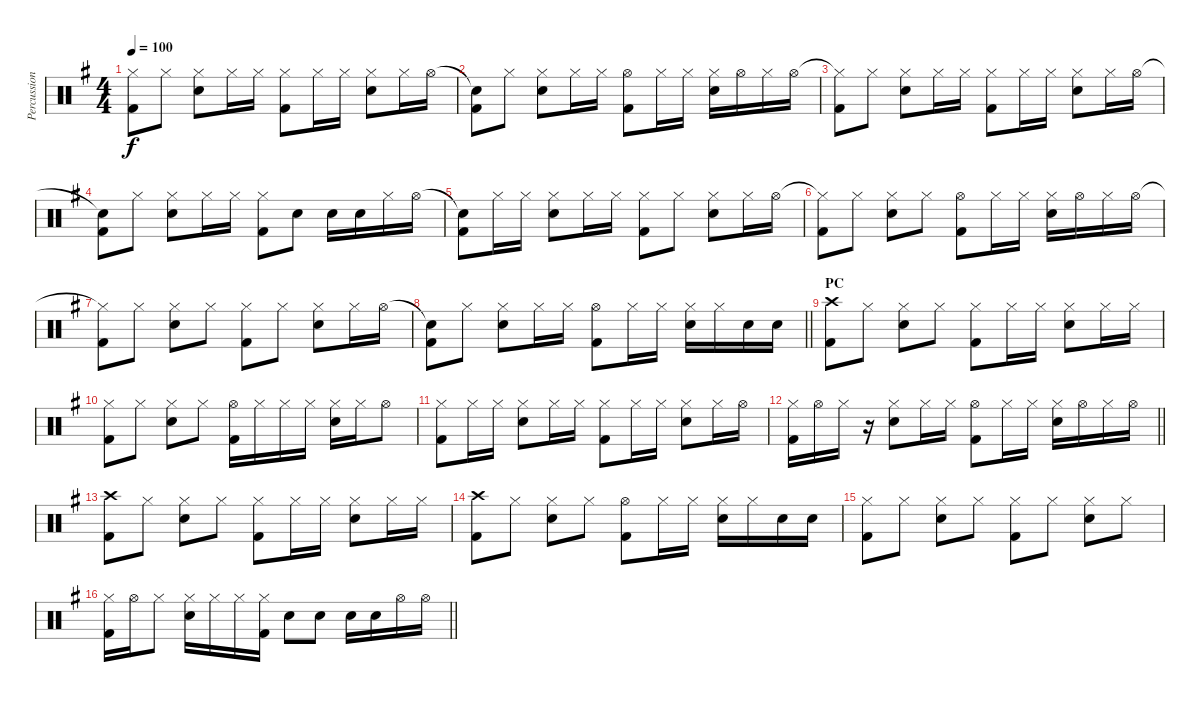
\track ("Percussion" "Percussion") {instrument percussion}
\staff {score}
\articulation defaults
\ts (4 4)
\tempo 100
\clef neutral
\ks g
("Hi-Hat (closed)"{t} "Kick (hit) 2").8{dy f} "Hi-Hat (closed)".8 ("Hi-Hat (closed)" "Electric Snare (hit)").8 "Hi-Hat (closed)".16 "Hi-Hat (closed)".16 ("Hi-Hat (closed)" "Kick (hit) 2").8 "Hi-Hat (closed)".16 "Hi-Hat (closed)".16 ("Hi-Hat (closed)" "Electric Snare (hit)").8 "Hi-Hat (closed)".16 "Hi-Hat (open)".16 |
("Snare (hit)"{t} "Kick (hit) 2").8 "Hi-Hat (closed)".8 ("Hi-Hat (closed)" "Electric Snare (hit)").8 "Hi-Hat (closed)".16 "Hi-Hat (closed)".16 ("Hi-Hat (open)" "Kick (hit) 2").8 "Hi-Hat (closed)".16 "Hi-Hat (closed)".16 ("Hi-Hat (closed)" "Electric Snare (hit)").16 "Hi-Hat (open)".16 "Hi-Hat (closed)".16 "Hi-Hat (open)".16 |
("Hi-Hat (closed)"{t} "Kick (hit) 2").8 "Hi-Hat (closed)".8 ("Hi-Hat (closed)" "Electric Snare (hit)").8 "Hi-Hat (closed)".16 "Hi-Hat (closed)".16 ("Hi-Hat (closed)" "Kick (hit) 2").8 "Hi-Hat (closed)".16 "Hi-Hat (closed)".16 ("Hi-Hat (closed)" "Electric Snare (hit)").8 "Hi-Hat (closed)".16 "Hi-Hat (open)".16 |
("Snare (hit)"{t} "Kick (hit) 2").8 "Hi-Hat (closed)".8 ("Hi-Hat (closed)" "Electric Snare (hit)").8 "Hi-Hat (closed)".16 "Hi-Hat (closed)".16 ("Hi-Hat (closed)" "Kick (hit) 2").8 "Electric Snare (hit)".8 "Electric Snare (hit)".16 "Electric Snare (hit)".16 "Hi-Hat (closed)".16 "Hi-Hat (open)".16 |
("Snare (hit)"{t} "Kick (hit) 2").8 "Hi-Hat (closed)".16 "Hi-Hat (closed)".16 ("Hi-Hat (closed)" "Electric Snare (hit)").8 "Hi-Hat (closed)".16 "Hi-Hat (closed)".16 ("Hi-Hat (closed)" "Kick (hit) 2").8 "Hi-Hat (closed)".8 ("Hi-Hat (closed)" "Electric Snare (hit)").8 "Hi-Hat (closed)".16 "Hi-Hat (open)".16 |
("Hi-Hat (closed)"{t} "Kick (hit) 2").8 "Hi-Hat (closed)".8 ("Hi-Hat (closed)" "Electric Snare (hit)").8 "Hi-Hat (closed)".8 ("Hi-Hat (open)" "Kick (hit) 2").8 "Hi-Hat (closed)".16 "Hi-Hat (closed)".16 ("Hi-Hat (closed)" "Electric Snare (hit)").16 "Hi-Hat (open)".16 "Hi-Hat (closed)".16 "Hi-Hat (open)".16 |
("Hi-Hat (closed)"{t} "Kick (hit) 2").8 "Hi-Hat (closed)".8 ("Hi-Hat (closed)" "Electric Snare (hit)").8 "Hi-Hat (closed)".8 ("Hi-Hat (closed)" "Kick (hit) 2").8 "Hi-Hat (closed)".8 ("Hi-Hat (closed)" "Electric Snare (hit)").8 "Hi-Hat (closed)".16 "Hi-Hat (open)".16 |
\barLineRight lightlight
("Snare (hit)"{t} "Kick (hit) 2").8 "Hi-Hat (closed)".8 ("Hi-Hat (closed)" "Electric Snare (hit)").8 "Hi-Hat (closed)".16 "Hi-Hat (closed)".16 ("Hi-Hat (open)" "Kick (hit) 2").8 "Hi-Hat (closed)".16 "Hi-Hat (closed)".16 ("Hi-Hat (closed)" "Electric Snare (hit)").16 "Hi-Hat (closed)".16 "Electric Snare (hit)".16 "Electric Snare (hit)".16 |
\section ("" "PC")
("Crash high (hit)" "Kick (hit) 2").8 "Hi-Hat (closed)".8 ("Hi-Hat (closed)" "Electric Snare (hit)").8 "Hi-Hat (closed)".8 ("Hi-Hat (closed)" "Kick (hit) 2").8 "Hi-Hat (closed)".16 "Hi-Hat (closed)".16 ("Hi-Hat (closed)" "Electric Snare (hit)").8 "Hi-Hat (closed)".16 "Hi-Hat (closed)".16 |
("Hi-Hat (closed)" "Kick (hit) 2").8 "Hi-Hat (closed)".8 ("Hi-Hat (closed)" "Electric Snare (hit)").8 "Hi-Hat (closed)".8 ("Hi-Hat (open)" "Kick (hit) 2").16 "Hi-Hat (closed)".16 "Hi-Hat (closed)".16 "Hi-Hat (closed)".16 ("Hi-Hat (closed)" "Electric Snare (hit)").16 "Hi-Hat (closed)".16 "Hi-Hat (open)".8 |
("Hi-Hat (closed)" "Kick (hit) 2").8 "Hi-Hat (closed)".16 "Hi-Hat (closed)".16 ("Hi-Hat (closed)" "Electric Snare (hit)").8 "Hi-Hat (closed)".16 "Hi-Hat (closed)".16 ("Hi-Hat (closed)" "Kick (hit) 2").8 "Hi-Hat (closed)".16 "Hi-Hat (closed)".16 ("Hi-Hat (closed)" "Electric Snare (hit)").8 "Hi-Hat (closed)".16 "Hi-Hat (open)".16 |
\barLineRight lightlight
("Hi-Hat (closed)" "Kick (hit) 2").16 "Hi-Hat (open)".16 "Hi-Hat (closed)".16 r.16 ("Hi-Hat (closed)" "Electric Snare (hit)").8 "Hi-Hat (closed)".16 "Hi-Hat (closed)".16 ("Hi-Hat (open)" "Kick (hit) 2").8 "Hi-Hat (closed)".16 "Hi-Hat (closed)".16 ("Hi-Hat (closed)" "Electric Snare (hit)").16 "Hi-Hat (open)".16 "Hi-Hat (closed)".16 "Hi-Hat (open)".16 |
("Crash high (hit)" "Kick (hit) 2").8 "Hi-Hat (closed)".8 ("Hi-Hat (closed)" "Electric Snare (hit)").8 "Hi-Hat (closed)".8 ("Hi-Hat (closed)" "Kick (hit) 2").8 "Hi-Hat (closed)".16 "Hi-Hat (closed)".16 ("Hi-Hat (closed)" "Electric Snare (hit)").8 "Hi-Hat (closed)".16 "Hi-Hat (closed)".16 |
("Crash high (hit)" "Kick (hit) 2").8 "Hi-Hat (closed)".8 ("Hi-Hat (closed)" "Electric Snare (hit)").8 "Hi-Hat (closed)".8 ("Hi-Hat (open)" "Kick (hit) 2").8 "Hi-Hat (closed)".16 "Hi-Hat (closed)".16 ("Hi-Hat (closed)" "Electric Snare (hit)").16 "Hi-Hat (closed)".16 "Electric Snare (hit)".16 "Electric Snare (hit)".16 |
("Hi-Hat (closed)" "Kick (hit) 2").8 "Hi-Hat (closed)".8 ("Hi-Hat (closed)" "Electric Snare (hit)").8 "Hi-Hat (closed)".8 ("Hi-Hat (closed)" "Kick (hit) 2").8 "Hi-Hat (closed)".8 ("Hi-Hat (closed)" "Electric Snare (hit)").8 "Hi-Hat (closed)".8 |
\barLineRight lightlight
("Hi-Hat (closed)" "Kick (hit) 2").16 "Hi-Hat (open)".16 "Hi-Hat (closed)".8 ("Hi-Hat (closed)" "Electric Snare (hit)").16 "Hi-Hat (closed)".16 "Hi-Hat (closed)".16 ("Hi-Hat (closed)" "Kick (hit) 2").16 "Electric Snare (hit)".8 "Electric Snare (hit)".8 "Electric Snare (hit)".16 "Electric Snare (hit)".16 "Hi-Hat (open)".16 "Hi-Hat (open)".16
